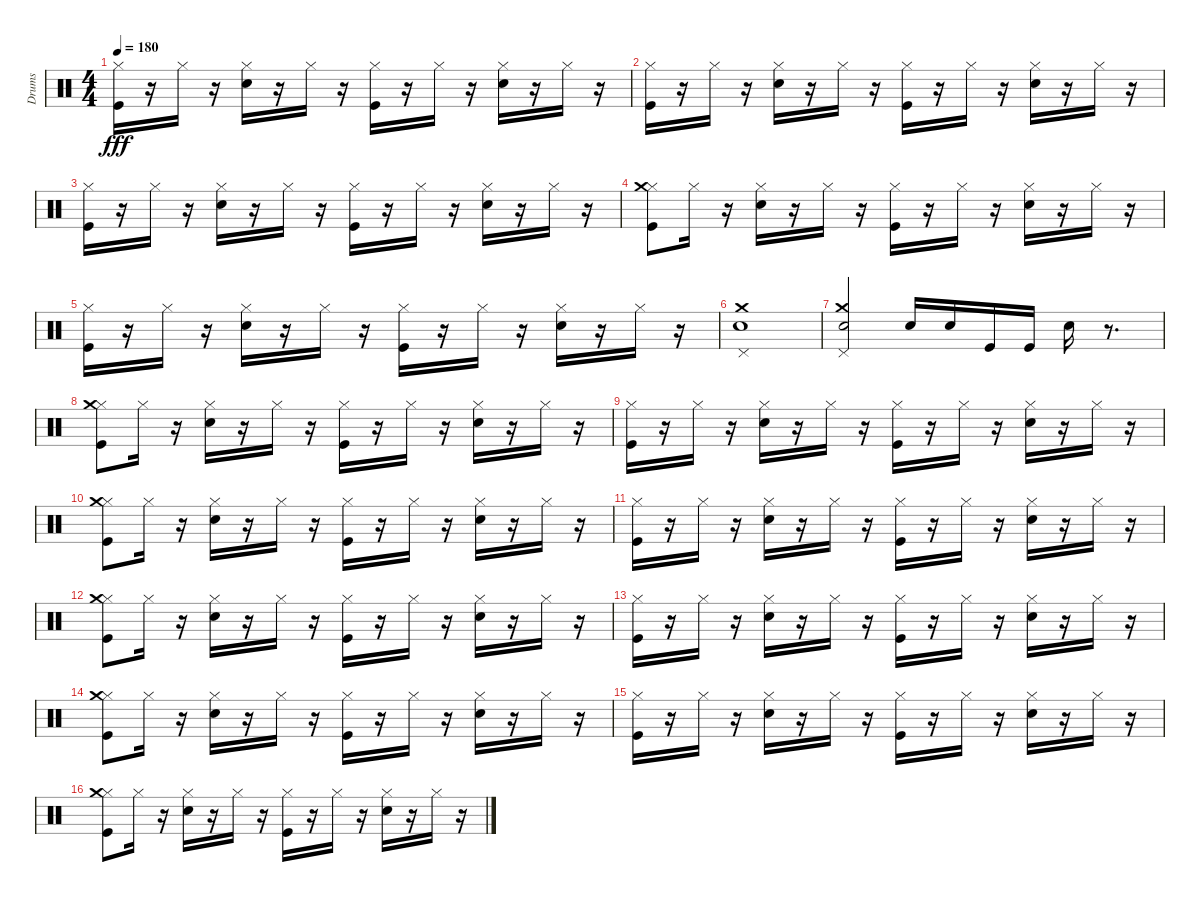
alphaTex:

\track ("Drums" "Drums") {instrument percussion}
\staff {score}
\articulation defaults
\ts (4 4)
\tempo 180
\clef neutral
\ks c
("Hi-Hat (closed)" "Kick (hit)").16{dy fff} r.16 "Hi-Hat (closed)".16 r.16 ("Hi-Hat (closed)" "Snare (hit) 2").16 r.16 "Hi-Hat (closed)".16 r.16 ("Hi-Hat (closed)" "Kick (hit)").16 r.16 "Hi-Hat (closed)".16 r.16 ("Hi-Hat (closed)" "Snare (hit) 2").16 r.16 "Hi-Hat (closed)".16 r.16 |
("Kick (hit)" "Hi-Hat (closed)").16 r.16 "Hi-Hat (closed)".16 r.16 ("Snare (hit) 2" "Hi-Hat (closed)").16 r.16 "Hi-Hat (closed)".16 r.16 ("Kick (hit)" "Hi-Hat (closed)").16 r.16 "Hi-Hat (closed)".16 r.16 ("Snare (hit) 2" "Hi-Hat (closed)").16 r.16 "Hi-Hat (closed)".16 r.16 |
("Hi-Hat (closed)" "Kick (hit)").16 r.16 "Hi-Hat (closed)".16 r.16 ("Hi-Hat (closed)" "Snare (hit) 2").16 r.16 "Hi-Hat (closed)".16 r.16 ("Hi-Hat (closed)" "Kick (hit)").16 r.16 "Hi-Hat (closed)".16 r.16 ("Hi-Hat (closed)" "Snare (hit) 2").16 r.16 "Hi-Hat (closed)".16 r.16 |
("Kick (hit)" "Hi-Hat (closed)" "Crash medium (hit)").8 "Hi-Hat (closed)".16 r.16 ("Snare (hit) 2" "Hi-Hat (closed)").16 r.16 "Hi-Hat (closed)".16 r.16 ("Kick (hit)" "Hi-Hat (closed)").16 r.16 "Hi-Hat (closed)".16 r.16 ("Snare (hit) 2" "Hi-Hat (closed)").16 r.16 "Hi-Hat (closed)".16 r.16 |
("Hi-Hat (closed)" "Kick (hit)").16 r.16 "Hi-Hat (closed)".16 r.16 ("Hi-Hat (closed)" "Snare (hit) 2").16 r.16 "Hi-Hat (closed)".16 r.16 ("Hi-Hat (closed)" "Kick (hit)").16 r.16 "Hi-Hat (closed)".16 r.16 ("Hi-Hat (closed)" "Snare (hit) 2").16 r.16 "Hi-Hat (closed)".16 r.16 |
("Snare (hit) 2" "Pedal Hi-Hat (hit)" "Crash medium (hit)").1 |
("Pedal Hi-Hat (hit)" "Snare (hit) 2" "Crash medium (hit)").2 "Snare (hit) 2".16 "Snare (hit) 2".16 "Kick (hit)".16 "Kick (hit)".16 "Snare (hit) 2".16 r.8{d} |
("Kick (hit)" "Hi-Hat (closed)" "Crash medium (hit)").8 "Hi-Hat (closed)".16 r.16 ("Snare (hit) 2" "Hi-Hat (closed)").16 r.16 "Hi-Hat (closed)".16 r.16 ("Kick (hit)" "Hi-Hat (closed)").16 r.16 "Hi-Hat (closed)".16 r.16 ("Snare (hit) 2" "Hi-Hat (closed)").16 r.16 "Hi-Hat (closed)".16 r.16 |
("Hi-Hat (closed)" "Kick (hit)").16 r.16 "Hi-Hat (closed)".16 r.16 ("Hi-Hat (closed)" "Snare (hit) 2").16 r.16 "Hi-Hat (closed)".16 r.16 ("Hi-Hat (closed)" "Kick (hit)").16 r.16 "Hi-Hat (closed)".16 r.16 ("Hi-Hat (closed)" "Snare (hit) 2").16 r.16 "Hi-Hat (closed)".16 r.16 |
("Kick (hit)" "Hi-Hat (closed)" "Crash medium (hit)").8 "Hi-Hat (closed)".16 r.16 ("Snare (hit) 2" "Hi-Hat (closed)").16 r.16 "Hi-Hat (closed)".16 r.16 ("Kick (hit)" "Hi-Hat (closed)").16 r.16 "Hi-Hat (closed)".16 r.16 ("Snare (hit) 2" "Hi-Hat (closed)").16 r.16 "Hi-Hat (closed)".16 r.16 |
("Hi-Hat (closed)" "Kick (hit)").16 r.16 "Hi-Hat (closed)".16 r.16 ("Hi-Hat (closed)" "Snare (hit) 2").16 r.16 "Hi-Hat (closed)".16 r.16 ("Hi-Hat (closed)" "Kick (hit)").16 r.16 "Hi-Hat (closed)".16 r.16 ("Hi-Hat (closed)" "Snare (hit) 2").16 r.16 "Hi-Hat (closed)".16 r.16 |
("Kick (hit)" "Hi-Hat (closed)" "Crash medium (hit)").8 "Hi-Hat (closed)".16 r.16 ("Snare (hit) 2" "Hi-Hat (closed)").16 r.16 "Hi-Hat (closed)".16 r.16 ("Kick (hit)" "Hi-Hat (closed)").16 r.16 "Hi-Hat (closed)".16 r.16 ("Snare (hit) 2" "Hi-Hat (closed)").16 r.16 "Hi-Hat (closed)".16 r.16 |
("Hi-Hat (closed)" "Kick (hit)").16 r.16 "Hi-Hat (closed)".16 r.16 ("Hi-Hat (closed)" "Snare (hit) 2").16 r.16 "Hi-Hat (closed)".16 r.16 ("Hi-Hat (closed)" "Kick (hit)").16 r.16 "Hi-Hat (closed)".16 r.16 ("Hi-Hat (closed)" "Snare (hit) 2").16 r.16 "Hi-Hat (closed)".16 r.16 |
("Kick (hit)" "Hi-Hat (closed)" "Crash medium (hit)").8 "Hi-Hat (closed)".16 r.16 ("Snare (hit) 2" "Hi-Hat (closed)").16 r.16 "Hi-Hat (closed)".16 r.16 ("Kick (hit)" "Hi-Hat (closed)").16 r.16 "Hi-Hat (closed)".16 r.16 ("Snare (hit) 2" "Hi-Hat (closed)").16 r.16 "Hi-Hat (closed)".16 r.16 |
("Hi-Hat (closed)" "Kick (hit)").16 r.16 "Hi-Hat (closed)".16 r.16 ("Hi-Hat (closed)" "Snare (hit) 2").16 r.16 "Hi-Hat (closed)".16 r.16 ("Hi-Hat (closed)" "Kick (hit)").16 r.16 "Hi-Hat (closed)".16 r.16 ("Hi-Hat (closed)" "Snare (hit) 2").16 r.16 "Hi-Hat (closed)".16 r.16 |
("Kick (hit)" "Hi-Hat (closed)" "Crash medium (hit)").8 "Hi-Hat (closed)".16 r.16 ("Snare (hit) 2" "Hi-Hat (closed)").16 r.16 "Hi-Hat (closed)".16 r.16 ("Kick (hit)" "Hi-Hat (closed)").16 r.16 "Hi-Hat (closed)".16 r.16 ("Snare (hit) 2" "Hi-Hat (closed)").16 r.16 "Hi-Hat (closed)".16 r.16
